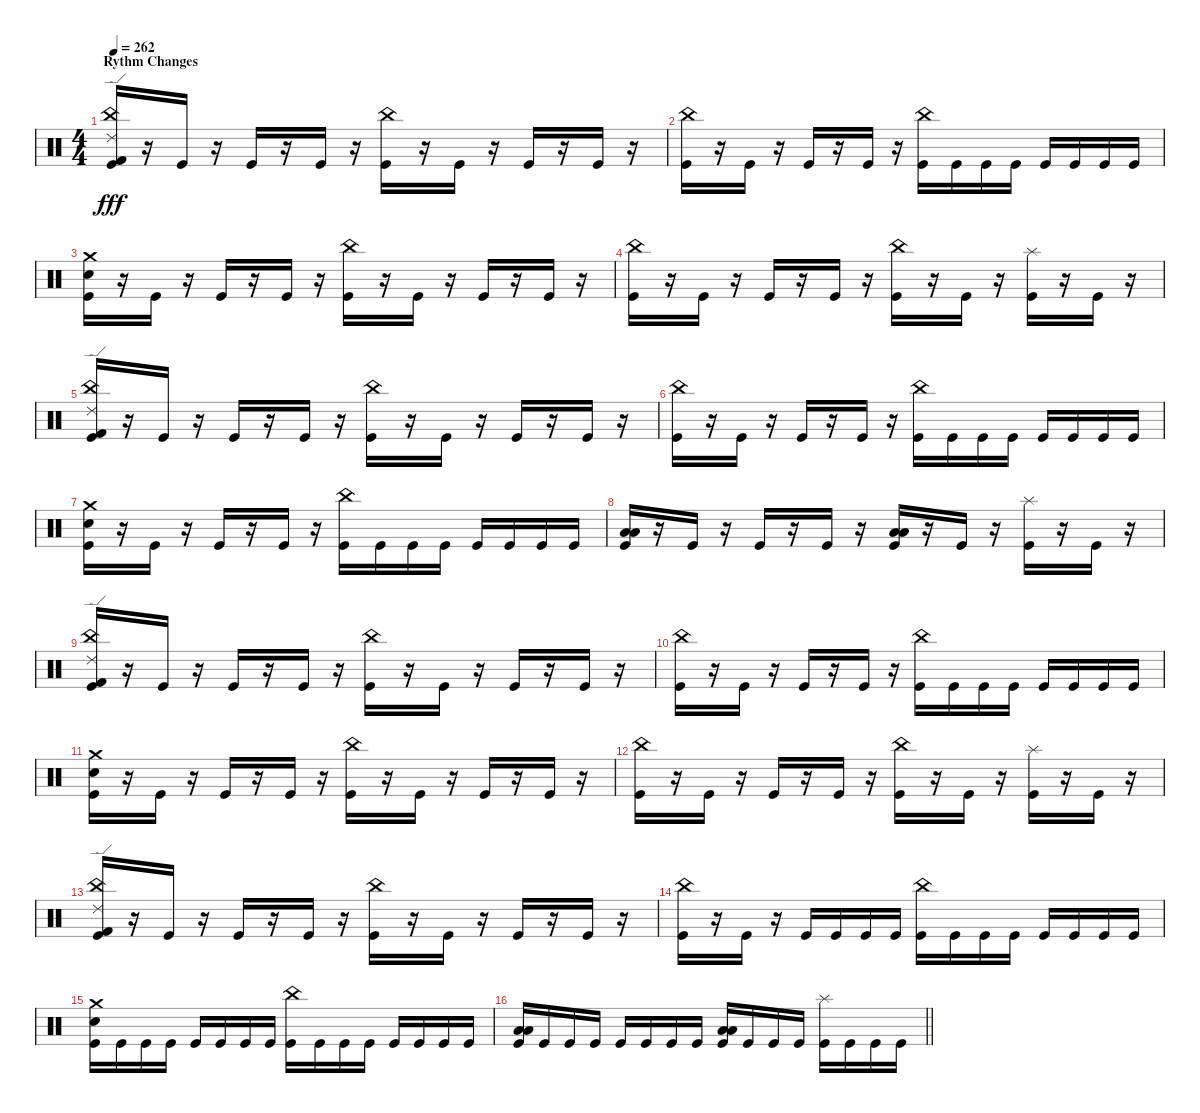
\track "" {instrument percussion}
\staff {score}
\articulation defaults
\ts (4 4)
\section ("" "Rythm Changes")
\tempo 262
\clef neutral
\ks c
("Kick (hit)" "Kick (hit) 2" "China (hit)" "Ride (edge) 2").16{dy fff} r.16 "Kick (hit)".16 r.16 "Kick (hit)".16 r.16 "Kick (hit)".16 r.16 ("Kick (hit)" "China (hit)").16 r.16 "Kick (hit)".16 r.16 "Kick (hit)".16 r.16 "Kick (hit)".16 r.16 |
("Kick (hit)" "China (hit)").16 r.16 "Kick (hit)".16 r.16 "Kick (hit)".16 r.16 "Kick (hit)".16 r.16 ("Kick (hit)" "China (hit)").16 "Kick (hit)".16 "Kick (hit)".16 "Kick (hit)".16 "Kick (hit)".16 "Kick (hit)".16 "Kick (hit)".16 "Kick (hit)".16 |
("Kick (hit)" "Snare (hit) 2" "Crash medium (hit)").16 r.16 "Kick (hit)".16 r.16 "Kick (hit)".16 r.16 "Kick (hit)".16 r.16 ("Kick (hit)" "China (hit)").16 r.16 "Kick (hit)".16 r.16 "Kick (hit)".16 r.16 "Kick (hit)".16 r.16 |
("Kick (hit)" "China (hit)").16 r.16 "Kick (hit)".16 r.16 "Kick (hit)".16 r.16 "Kick (hit)".16 r.16 ("Kick (hit)" "China (hit)").16 r.16 "Kick (hit)".16 r.16 ("Kick (hit)" "Splash (hit)").16 r.16 "Kick (hit)".16 r.16 |
("Kick (hit)" "Kick (hit) 2" "China (hit)" "Ride (edge) 2").16 r.16 "Kick (hit)".16 r.16 "Kick (hit)".16 r.16 "Kick (hit)".16 r.16 ("Kick (hit)" "China (hit)").16 r.16 "Kick (hit)".16 r.16 "Kick (hit)".16 r.16 "Kick (hit)".16 r.16 |
("Kick (hit)" "China (hit)").16 r.16 "Kick (hit)".16 r.16 "Kick (hit)".16 r.16 "Kick (hit)".16 r.16 ("Kick (hit)" "China (hit)").16 "Kick (hit)".16 "Kick (hit)".16 "Kick (hit)".16 "Kick (hit)".16 "Kick (hit)".16 "Kick (hit)".16 "Kick (hit)".16 |
("Kick (hit)" "Snare (hit) 2" "Crash medium (hit)").16 r.16 "Kick (hit)".16 r.16 "Kick (hit)".16 r.16 "Kick (hit)".16 r.16 ("Kick (hit)" "China (hit)").16 "Kick (hit)".16 "Kick (hit)".16 "Kick (hit)".16 "Kick (hit)".16 "Kick (hit)".16 "Kick (hit)".16 "Kick (hit)".16 |
("Kick (hit)" "Low Floor Tom (hit)" "Low Tom (hit)").16 r.16 "Kick (hit)".16 r.16 "Kick (hit)".16 r.16 "Kick (hit)".16 r.16 ("Kick (hit)" "Low Floor Tom (hit)" "Low Tom (hit)").16 r.16 "Kick (hit)".16 r.16 ("Kick (hit)" "Splash (hit)").16 r.16 "Kick (hit)".16 r.16 |
("Kick (hit)" "Kick (hit) 2" "China (hit)" "Ride (edge) 2").16 r.16 "Kick (hit)".16 r.16 "Kick (hit)".16 r.16 "Kick (hit)".16 r.16 ("Kick (hit)" "China (hit)").16 r.16 "Kick (hit)".16 r.16 "Kick (hit)".16 r.16 "Kick (hit)".16 r.16 |
("Kick (hit)" "China (hit)").16 r.16 "Kick (hit)".16 r.16 "Kick (hit)".16 r.16 "Kick (hit)".16 r.16 ("Kick (hit)" "China (hit)").16 "Kick (hit)".16 "Kick (hit)".16 "Kick (hit)".16 "Kick (hit)".16 "Kick (hit)".16 "Kick (hit)".16 "Kick (hit)".16 |
("Kick (hit)" "Snare (hit) 2" "Crash medium (hit)").16 r.16 "Kick (hit)".16 r.16 "Kick (hit)".16 r.16 "Kick (hit)".16 r.16 ("Kick (hit)" "China (hit)").16 r.16 "Kick (hit)".16 r.16 "Kick (hit)".16 r.16 "Kick (hit)".16 r.16 |
("Kick (hit)" "China (hit)").16 r.16 "Kick (hit)".16 r.16 "Kick (hit)".16 r.16 "Kick (hit)".16 r.16 ("Kick (hit)" "China (hit)").16 r.16 "Kick (hit)".16 r.16 ("Kick (hit)" "Splash (hit)").16 r.16 "Kick (hit)".16 r.16 |
("Kick (hit)" "Kick (hit) 2" "China (hit)" "Ride (edge) 2").16 r.16 "Kick (hit)".16 r.16 "Kick (hit)".16 r.16 "Kick (hit)".16 r.16 ("Kick (hit)" "China (hit)").16 r.16 "Kick (hit)".16 r.16 "Kick (hit)".16 r.16 "Kick (hit)".16 r.16 |
("Kick (hit)" "China (hit)").16 r.16 "Kick (hit)".16 r.16 "Kick (hit)".16 "Kick (hit)".16 "Kick (hit)".16 "Kick (hit)".16 ("Kick (hit)" "China (hit)").16 "Kick (hit)".16 "Kick (hit)".16 "Kick (hit)".16 "Kick (hit)".16 "Kick (hit)".16 "Kick (hit)".16 "Kick (hit)".16 |
("Kick (hit)" "Snare (hit) 2" "Crash medium (hit)").16 "Kick (hit)".16 "Kick (hit)".16 "Kick (hit)".16 "Kick (hit)".16 "Kick (hit)".16 "Kick (hit)".16 "Kick (hit)".16 ("Kick (hit)" "China (hit)").16 "Kick (hit)".16 "Kick (hit)".16 "Kick (hit)".16 "Kick (hit)".16 "Kick (hit)".16 "Kick (hit)".16 "Kick (hit)".16 |
\barLineRight lightlight
("Kick (hit)" "Low Floor Tom (hit)" "Low Tom (hit)").16 "Kick (hit)".16 "Kick (hit)".16 "Kick (hit)".16 "Kick (hit)".16 "Kick (hit)".16 "Kick (hit)".16 "Kick (hit)".16 ("Kick (hit)" "Low Floor Tom (hit)" "Low Tom (hit)").16 "Kick (hit)".16 "Kick (hit)".16 "Kick (hit)".16 ("Kick (hit)" "Splash (hit)").16 "Kick (hit)".16 "Kick (hit)".16 "Kick (hit)".16
